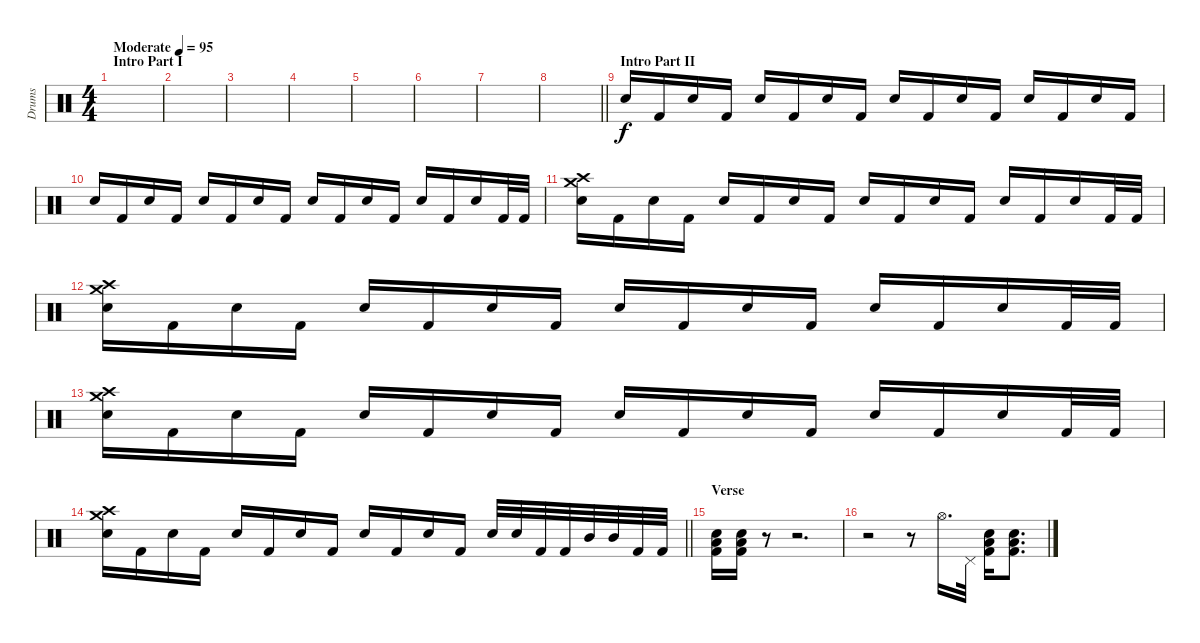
\track ("Drums" "Drums") {instrument percussion}
\staff {score}
\articulation defaults
\ts (4 4)
\section ("" "Intro Part I")
\tempo (95 "Moderate")
\clef neutral
\ks c
|
|
|
|
|
|
|
\barLineRight lightlight
|
\section ("" "Intro Part II")
"Electric Snare (hit)".16 "Kick (hit) 2".16 "Electric Snare (hit)".16 "Kick (hit) 2".16 "Electric Snare (hit)".16 "Kick (hit) 2".16 "Electric Snare (hit)".16 "Kick (hit) 2".16 "Electric Snare (hit)".16 "Kick (hit) 2".16 "Electric Snare (hit)".16 "Kick (hit) 2".16 "Electric Snare (hit)".16 "Kick (hit) 2".16 "Electric Snare (hit)".16 "Kick (hit) 2".16 |
"Electric Snare (hit)".16 "Kick (hit) 2".16 "Electric Snare (hit)".16 "Kick (hit) 2".16 "Electric Snare (hit)".16 "Kick (hit) 2".16 "Electric Snare (hit)".16 "Kick (hit) 2".16 "Electric Snare (hit)".16 "Kick (hit) 2".16 "Electric Snare (hit)".16 "Kick (hit) 2".16 "Electric Snare (hit)".16 "Kick (hit) 2".16 "Electric Snare (hit)".16 "Kick (hit) 2".32 "Kick (hit) 2".32 |
("Crash medium (hit)" "Crash high (hit)" "Electric Snare (hit)").16 "Kick (hit) 2".16 "Electric Snare (hit)".16 "Kick (hit) 2".16 "Electric Snare (hit)".16 "Kick (hit) 2".16 "Electric Snare (hit)".16 "Kick (hit) 2".16 "Electric Snare (hit)".16 "Kick (hit) 2".16 "Electric Snare (hit)".16 "Kick (hit) 2".16 "Electric Snare (hit)".16 "Kick (hit) 2".16 "Electric Snare (hit)".16 "Kick (hit) 2".32 "Kick (hit) 2".32 |
("Crash medium (hit)" "Crash high (hit)" "Electric Snare (hit)").16 "Kick (hit) 2".16 "Electric Snare (hit)".16 "Kick (hit) 2".16 "Electric Snare (hit)".16 "Kick (hit) 2".16 "Electric Snare (hit)".16 "Kick (hit) 2".16 "Electric Snare (hit)".16 "Kick (hit) 2".16 "Electric Snare (hit)".16 "Kick (hit) 2".16 "Electric Snare (hit)".16 "Kick (hit) 2".16 "Electric Snare (hit)".16 "Kick (hit) 2".32 "Kick (hit) 2".32 |
("Crash medium (hit)" "Crash high (hit)" "Electric Snare (hit)").16 "Kick (hit) 2".16 "Electric Snare (hit)".16 "Kick (hit) 2".16 "Electric Snare (hit)".16 "Kick (hit) 2".16 "Electric Snare (hit)".16 "Kick (hit) 2".16 "Electric Snare (hit)".16 "Kick (hit) 2".16 "Electric Snare (hit)".16 "Kick (hit) 2".16 "Electric Snare (hit)".16 "Kick (hit) 2".16 "Electric Snare (hit)".16 "Kick (hit) 2".32 "Kick (hit) 2".32 |
\barLineRight lightlight
("Crash medium (hit)" "Crash high (hit)" "Electric Snare (hit)").16 "Kick (hit) 2".16 "Electric Snare (hit)".16 "Kick (hit) 2".16 "Electric Snare (hit)".16 "Kick (hit) 2".16 "Electric Snare (hit)".16 "Kick (hit) 2".16 "Electric Snare (hit)".16 "Kick (hit) 2".16 "Electric Snare (hit)".16 "Kick (hit) 2".16 "Electric Snare (hit)".32 "Electric Snare (hit)".32 "Kick (hit) 2".32 "Kick (hit) 2".32 "Mid Tom (hit)".32 "Mid Tom (hit)".32 "Kick (hit) 2".32 "Kick (hit) 2".32 |
\section ("" "Verse ")
("Low Floor Tom (hit)" "Electric Snare (hit)" "Kick (hit) 2").16 ("Low Floor Tom (hit)" "Electric Snare (hit)" "Kick (hit) 2").16 r.8 r.2{d} |
r.2 r.8 "Hi-Hat (open)".16{d} "Pedal Hi-Hat (hit)".32 ("Low Floor Tom (hit)" "Electric Snare (hit)" "Kick (hit) 2").16 ("Low Floor Tom (hit)" "Electric Snare (hit)" "Kick (hit) 2").8{d}
